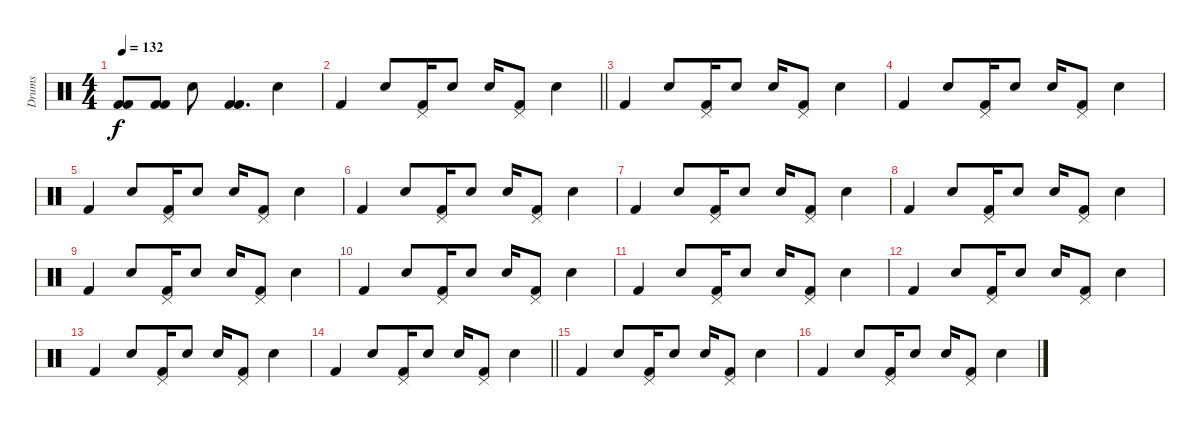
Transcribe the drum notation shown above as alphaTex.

\track ("Drums" "Drums") {instrument percussion}
\staff {score}
\articulation defaults
\ts (4 4)
\tempo 132
\clef neutral
\ks c
("Kick (hit) 2" "Kick (hit) 2").8{dy f} ("Kick (hit) 2" "Kick (hit) 2").8 "Snare (hit) 2".8 ("Kick (hit) 2" "Kick (hit) 2").4{d} "Snare (hit) 2".4 |
\barLineRight lightlight "Kick (hit) 2".4 "Snare (hit) 2".8
("Pedal Hi-Hat (hit)" "Kick (hit) 2").16 "Snare (hit) 2".8 "Snare (hit) 2".16 ("Pedal Hi-Hat (hit)" "Kick (hit) 2").8 "Snare (hit) 2".4 |
"Kick (hit) 2".4 "Snare (hit) 2".8 ("Pedal Hi-Hat (hit)" "Kick (hit) 2").16 "Snare (hit) 2".8 "Snare (hit) 2".16 ("Pedal Hi-Hat (hit)" "Kick (hit) 2").8 "Snare (hit) 2".4 |
"Kick (hit) 2".4 "Snare (hit) 2".8 ("Pedal Hi-Hat (hit)" "Kick (hit) 2").16 "Snare (hit) 2".8 "Snare (hit) 2".16 ("Pedal Hi-Hat (hit)" "Kick (hit) 2").8 "Snare (hit) 2".4 |
"Kick (hit) 2".4 "Snare (hit) 2".8 ("Pedal Hi-Hat (hit)" "Kick (hit) 2").16 "Snare (hit) 2".8 "Snare (hit) 2".16 ("Pedal Hi-Hat (hit)" "Kick (hit) 2").8 "Snare (hit) 2".4 |
"Kick (hit) 2".4 "Snare (hit) 2".8 ("Pedal Hi-Hat (hit)" "Kick (hit) 2").16 "Snare (hit) 2".8 "Snare (hit) 2".16 ("Pedal Hi-Hat (hit)" "Kick (hit) 2").8 "Snare (hit) 2".4 |
"Kick (hit) 2".4 "Snare (hit) 2".8 ("Pedal Hi-Hat (hit)" "Kick (hit) 2").16 "Snare (hit) 2".8 "Snare (hit) 2".16 ("Pedal Hi-Hat (hit)" "Kick (hit) 2").8 "Snare (hit) 2".4 |
"Kick (hit) 2".4 "Snare (hit) 2".8 ("Pedal Hi-Hat (hit)" "Kick (hit) 2").16 "Snare (hit) 2".8 "Snare (hit) 2".16 ("Pedal Hi-Hat (hit)" "Kick (hit) 2").8 "Snare (hit) 2".4 |
"Kick (hit) 2".4 "Snare (hit) 2".8 ("Pedal Hi-Hat (hit)" "Kick (hit) 2").16 "Snare (hit) 2".8 "Snare (hit) 2".16 ("Pedal Hi-Hat (hit)" "Kick (hit) 2").8 "Snare (hit) 2".4 |
"Kick (hit) 2".4 "Snare (hit) 2".8 ("Pedal Hi-Hat (hit)" "Kick (hit) 2").16 "Snare (hit) 2".8 "Snare (hit) 2".16 ("Pedal Hi-Hat (hit)" "Kick (hit) 2").8 "Snare (hit) 2".4 |
"Kick (hit) 2".4 "Snare (hit) 2".8 ("Pedal Hi-Hat (hit)" "Kick (hit) 2").16 "Snare (hit) 2".8 "Snare (hit) 2".16 ("Pedal Hi-Hat (hit)" "Kick (hit) 2").8 "Snare (hit) 2".4 |
"Kick (hit) 2".4 "Snare (hit) 2".8 ("Pedal Hi-Hat (hit)" "Kick (hit) 2").16 "Snare (hit) 2".8 "Snare (hit) 2".16 ("Pedal Hi-Hat (hit)" "Kick (hit) 2").8 "Snare (hit) 2".4 |
"Kick (hit) 2".4 "Snare (hit) 2".8 ("Pedal Hi-Hat (hit)" "Kick (hit) 2").16 "Snare (hit) 2".8 "Snare (hit) 2".16 ("Pedal Hi-Hat (hit)" "Kick (hit) 2").8 "Snare (hit) 2".4 |
\barLineRight lightlight "Kick (hit) 2".4 "Snare (hit) 2".8
("Pedal Hi-Hat (hit)" "Kick (hit) 2").16 "Snare (hit) 2".8 "Snare (hit) 2".16 ("Pedal Hi-Hat (hit)" "Kick (hit) 2").8 "Snare (hit) 2".4 |
"Kick (hit) 2".4 "Snare (hit) 2".8 ("Pedal Hi-Hat (hit)" "Kick (hit) 2").16 "Snare (hit) 2".8 "Snare (hit) 2".16 ("Pedal Hi-Hat (hit)" "Kick (hit) 2").8 "Snare (hit) 2".4 |
"Kick (hit) 2".4 "Snare (hit) 2".8 ("Pedal Hi-Hat (hit)" "Kick (hit) 2").16 "Snare (hit) 2".8 "Snare (hit) 2".16 ("Pedal Hi-Hat (hit)" "Kick (hit) 2").8 "Snare (hit) 2".4
